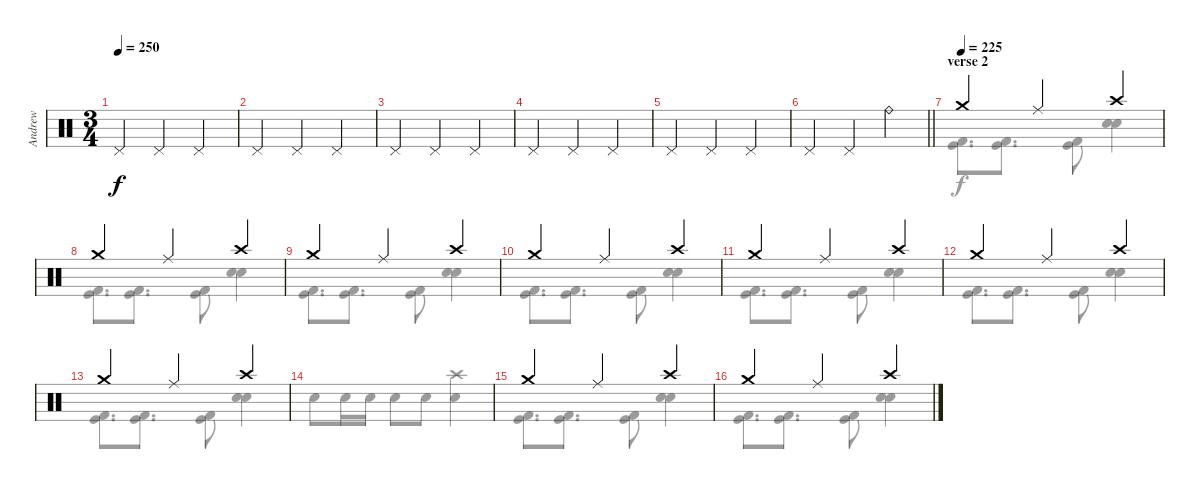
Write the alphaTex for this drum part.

\track ("Andrew" "Andrew") {instrument percussion}
\staff {score}
\articulation defaults
\voice
\ts (3 4)
\tempo 250
\clef neutral
\ks c "Pedal Hi-Hat (hit)".4{dy f} "Pedal Hi-Hat (hit)".4 "Pedal Hi-Hat (hit)".4
|
"Pedal Hi-Hat (hit)".4 "Pedal Hi-Hat (hit)".4 "Pedal Hi-Hat (hit)".4 |
"Pedal Hi-Hat (hit)".4 "Pedal Hi-Hat (hit)".4 "Pedal Hi-Hat (hit)".4 |
"Pedal Hi-Hat (hit)".4 "Pedal Hi-Hat (hit)".4 "Pedal Hi-Hat (hit)".4 |
"Pedal Hi-Hat (hit)".4 "Pedal Hi-Hat (hit)".4 "Pedal Hi-Hat (hit)".4 |
\barLineRight lightlight "Pedal Hi-Hat (hit)".4 "Pedal Hi-Hat (hit)".4 "Ride (bell)".4
|
\section ("" "verse 2")
\tempo (225)
"Crash medium (hit)".4 "Ride (middle)".4 "Crash high (hit)".4 |
"Crash medium (hit)".4 "Ride (middle)".4 "Crash high (hit)".4 |
"Crash medium (hit)".4 "Ride (middle)".4 "Crash high (hit)".4 |
"Crash medium (hit)".4 "Ride (middle)".4 "Crash high (hit)".4 |
"Crash medium (hit)".4 "Ride (middle)".4 "Crash high (hit)".4 |
"Crash medium (hit)".4 "Ride (middle)".4 "Crash high (hit)".4 |
"Crash medium (hit)".4 "Ride (middle)".4 "Crash high (hit)".4 |
|
"Crash medium (hit)".4 "Ride (middle)".4 "Crash high (hit)".4 |
"Crash medium (hit)".4 "Ride (middle)".4 "Crash high (hit)".4
\voice
\clef neutral
\ottava regular
\simile none
\ks c
|
|
|
|
|
\barLineRight lightlight
|
("Kick (hit)" "Kick (hit) 2").8{d} ("Kick (hit)" "Kick (hit) 2").8{d} ("Kick (hit)" "Kick (hit) 2").8 ("Snare (hit) 2" "Snare (hit) 2").4 |
("Kick (hit)" "Kick (hit) 2").8{d} ("Kick (hit)" "Kick (hit) 2").8{d} ("Kick (hit)" "Kick (hit) 2").8 ("Snare (hit) 2" "Snare (hit) 2").4 |
("Kick (hit)" "Kick (hit) 2").8{d} ("Kick (hit)" "Kick (hit) 2").8{d} ("Kick (hit)" "Kick (hit) 2").8 ("Snare (hit) 2" "Snare (hit) 2").4 |
("Kick (hit)" "Kick (hit) 2").8{d} ("Kick (hit)" "Kick (hit) 2").8{d} ("Kick (hit)" "Kick (hit) 2").8 ("Snare (hit) 2" "Snare (hit) 2").4 |
("Kick (hit)" "Kick (hit) 2").8{d} ("Kick (hit)" "Kick (hit) 2").8{d} ("Kick (hit)" "Kick (hit) 2").8 ("Snare (hit) 2" "Snare (hit) 2").4 |
("Kick (hit)" "Kick (hit) 2").8{d} ("Kick (hit)" "Kick (hit) 2").8{d} ("Kick (hit)" "Kick (hit) 2").8 ("Snare (hit) 2" "Snare (hit) 2").4 |
("Kick (hit)" "Kick (hit) 2").8{d} ("Kick (hit)" "Kick (hit) 2").8{d} ("Kick (hit)" "Kick (hit) 2").8 ("Snare (hit) 2" "Snare (hit) 2").4 |
"Snare (hit) 2".8 "Snare (hit) 2".16 "Snare (hit) 2".16 "Snare (hit) 2".8 "Snare (hit) 2".8 ("Crash high (hit)" "Snare (hit) 2").4 |
("Kick (hit)" "Kick (hit) 2").8{d} ("Kick (hit)" "Kick (hit) 2").8{d} ("Kick (hit)" "Kick (hit) 2").8 ("Snare (hit) 2" "Snare (hit) 2").4 |
("Kick (hit)" "Kick (hit) 2").8{d} ("Kick (hit)" "Kick (hit) 2").8{d} ("Kick (hit)" "Kick (hit) 2").8 ("Snare (hit) 2" "Snare (hit) 2").4
